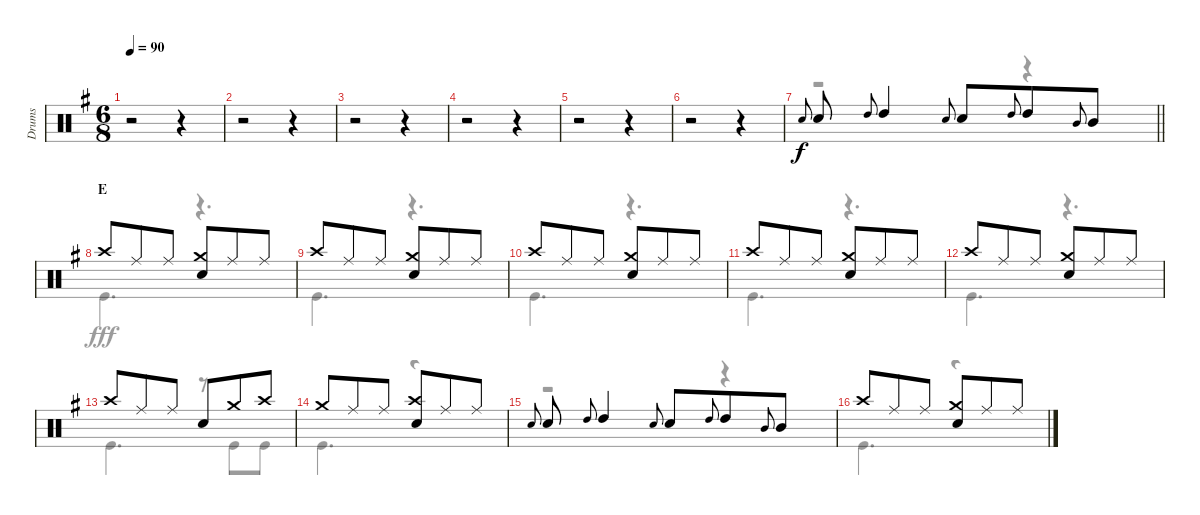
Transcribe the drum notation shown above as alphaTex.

\track ("Drums" "Drums") {instrument percussion}
\staff {score}
\articulation defaults
\voice
\ts (6 8)
\tempo 90
\clef neutral
\ks g
r.2{dy f} r.4 |
r.2 r.4 |
r.2 r.4 |
r.2 r.4 |
r.2 r.4 |
r.2 r.4 |
\barLineRight lightlight "Snare (hit) 2".8{gr onbeat} "Snare (hit) 2".8 "High Tom (hit)".8{gr onbeat} "High Tom (hit)".4 "Snare (hit) 2".8{gr onbeat} "Snare (hit) 2".8 "High Tom (hit)".8{gr onbeat} "High Tom (hit)".8 "Mid Tom (hit)".8{gr onbeat} "Mid Tom (hit)".8
|
\section ("" "E")
"Crash high (hit)".8 "Ride (middle)".8 "Ride (middle)".8 ("Crash medium (hit)" "Snare (hit) 2").8 "Ride (middle)".8 "Ride (middle)".8 |
"Crash high (hit)".8 "Ride (middle)".8 "Ride (middle)".8 ("Crash medium (hit)" "Snare (hit) 2").8 "Ride (middle)".8 "Ride (middle)".8 |
"Crash high (hit)".8 "Ride (middle)".8 "Ride (middle)".8 ("Crash medium (hit)" "Snare (hit) 2").8 "Ride (middle)".8 "Ride (middle)".8 |
"Crash high (hit)".8 "Ride (middle)".8 "Ride (middle)".8 ("Crash medium (hit)" "Snare (hit) 2").8 "Ride (middle)".8 "Ride (middle)".8 |
"Crash high (hit)".8 "Ride (middle)".8 "Ride (middle)".8 ("Crash medium (hit)" "Snare (hit) 2").8 "Ride (middle)".8 "Ride (middle)".8 |
"Crash high (hit)".8 "Ride (middle)".8 "Ride (middle)".8 "Snare (hit) 2".8 "Crash medium (hit)".8 "Crash high (hit)".8 |
"Crash medium (hit)".8 "Ride (middle)".8 "Ride (middle)".8 ("Crash high (hit)" "Snare (hit) 2").8 "Ride (middle)".8 "Ride (middle)".8 |
"Snare (hit) 2".8{gr onbeat} "Snare (hit) 2".8 "High Tom (hit)".8{gr onbeat} "High Tom (hit)".4 "Snare (hit) 2".8{gr onbeat} "Snare (hit) 2".8 "High Tom (hit)".8{gr onbeat} "High Tom (hit)".8 "Mid Tom (hit)".8{gr onbeat} "Mid Tom (hit)".8 |
"Crash high (hit)".8 "Ride (middle)".8 "Ride (middle)".8 ("Crash medium (hit)" "Snare (hit) 2").8 "Ride (middle)".8 "Ride (middle)".8
\voice
\clef neutral
\ottava regular
\simile none
\ks g
r.2{dy fff} r.4 |
r.2 r.4 |
r.2 r.4 |
r.2 r.4 |
r.2 r.4 |
r.2 r.4 |
\barLineRight lightlight
r.2 r.4 |
"Kick (hit)".4{d} r.4{d} |
"Kick (hit)".4{d} r.4{d} |
"Kick (hit)".4{d} r.4{d} |
"Kick (hit)".4{d} r.4{d} |
"Kick (hit)".4{d} r.4{d} |
"Kick (hit)".4{d} r.8 "Kick (hit)".8 "Kick (hit)".8 |
"Kick (hit)".4{d} r.4{d} |
r.2 r.4 |
"Kick (hit)".4{d} r.4{d}
